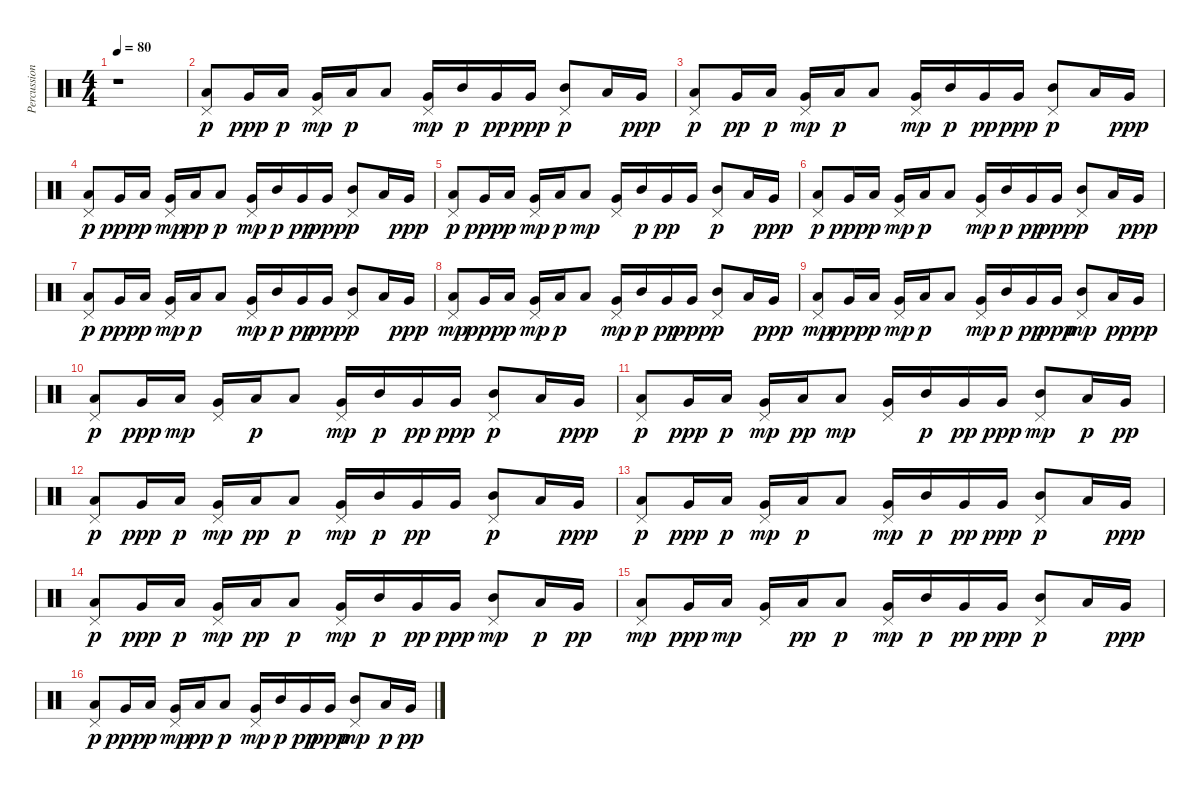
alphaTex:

\track ("Percussioni" "Percussion") {instrument percussion}
\staff {score}
\articulation defaults
\ts (4 4)
\tempo 80
\clef neutral
\ks c
r.1{dy p} |
("Pedal Hi-Hat (hit)" "Low Tom (hit)").8 "Very Low Tom (hit)".16{dy ppp} "Low Tom (hit)".16{dy p} ("Very Low Tom (hit)" "Pedal Hi-Hat (hit)").16{dy mp} "Low Tom (hit)".16{dy p} "Low Tom (hit)".8 ("Very Low Tom (hit)" "Pedal Hi-Hat (hit)").16{dy mp} "Mid Tom (hit)".16{dy p} "Very Low Tom (hit)".16{dy pp} "Very Low Tom (hit)".16{dy ppp} ("Pedal Hi-Hat (hit)" "Mid Tom (hit)").8{dy p} "Low Tom (hit)".16 "Very Low Tom (hit)".16{dy ppp} |
("Pedal Hi-Hat (hit)" "Low Tom (hit)").8{dy p} "Very Low Tom (hit)".16{dy pp} "Low Tom (hit)".16{dy p} ("Very Low Tom (hit)" "Pedal Hi-Hat (hit)").16{dy mp} "Low Tom (hit)".16{dy p} "Low Tom (hit)".8 ("Very Low Tom (hit)" "Pedal Hi-Hat (hit)").16{dy mp} "Mid Tom (hit)".16{dy p} "Very Low Tom (hit)".16{dy pp} "Very Low Tom (hit)".16{dy ppp} ("Pedal Hi-Hat (hit)" "Mid Tom (hit)").8{dy p} "Low Tom (hit)".16 "Very Low Tom (hit)".16{dy ppp} |
("Pedal Hi-Hat (hit)" "Low Tom (hit)").8{dy p} "Very Low Tom (hit)".16{dy ppp} "Low Tom (hit)".16{dy p} ("Very Low Tom (hit)" "Pedal Hi-Hat (hit)").16{dy mp} "Low Tom (hit)".16{dy pp} "Low Tom (hit)".8{dy p} ("Very Low Tom (hit)" "Pedal Hi-Hat (hit)").16{dy mp} "Mid Tom (hit)".16{dy p} "Very Low Tom (hit)".16{dy pp} "Very Low Tom (hit)".16{dy ppp} ("Pedal Hi-Hat (hit)" "Mid Tom (hit)").8{dy p} "Low Tom (hit)".16 "Very Low Tom (hit)".16{dy ppp} |
("Pedal Hi-Hat (hit)" "Low Tom (hit)").8{dy p} "Very Low Tom (hit)".16{dy ppp} "Low Tom (hit)".16{dy p} ("Very Low Tom (hit)" "Pedal Hi-Hat (hit)").16{dy mp} "Low Tom (hit)".16{dy p} "Low Tom (hit)".8{dy mp} ("Very Low Tom (hit)" "Pedal Hi-Hat (hit)").16 "Mid Tom (hit)".16{dy p} "Very Low Tom (hit)".16{dy pp} "Very Low Tom (hit)".16 ("Pedal Hi-Hat (hit)" "Mid Tom (hit)").8{dy p} "Low Tom (hit)".16 "Very Low Tom (hit)".16{dy ppp} |
("Pedal Hi-Hat (hit)" "Low Tom (hit)").8{dy p} "Very Low Tom (hit)".16{dy ppp} "Low Tom (hit)".16{dy p} ("Very Low Tom (hit)" "Pedal Hi-Hat (hit)").16{dy mp} "Low Tom (hit)".16{dy p} "Low Tom (hit)".8 ("Very Low Tom (hit)" "Pedal Hi-Hat (hit)").16{dy mp} "Mid Tom (hit)".16{dy p} "Very Low Tom (hit)".16{dy pp} "Very Low Tom (hit)".16{dy ppp} ("Pedal Hi-Hat (hit)" "Mid Tom (hit)").8{dy p} "Low Tom (hit)".16 "Very Low Tom (hit)".16{dy ppp} |
("Pedal Hi-Hat (hit)" "Low Tom (hit)").8{dy p} "Very Low Tom (hit)".16{dy ppp} "Low Tom (hit)".16{dy p} ("Very Low Tom (hit)" "Pedal Hi-Hat (hit)").16{dy mp} "Low Tom (hit)".16{dy p} "Low Tom (hit)".8 ("Very Low Tom (hit)" "Pedal Hi-Hat (hit)").16{dy mp} "Mid Tom (hit)".16{dy p} "Very Low Tom (hit)".16{dy pp} "Very Low Tom (hit)".16{dy ppp} ("Pedal Hi-Hat (hit)" "Mid Tom (hit)").8{dy p} "Low Tom (hit)".16 "Very Low Tom (hit)".16{dy ppp} |
("Pedal Hi-Hat (hit)" "Low Tom (hit)").8{dy mp} "Very Low Tom (hit)".16{dy ppp} "Low Tom (hit)".16{dy p} ("Very Low Tom (hit)" "Pedal Hi-Hat (hit)").16{dy mp} "Low Tom (hit)".16{dy p} "Low Tom (hit)".8 ("Very Low Tom (hit)" "Pedal Hi-Hat (hit)").16{dy mp} "Mid Tom (hit)".16{dy p} "Very Low Tom (hit)".16{dy pp} "Very Low Tom (hit)".16{dy ppp} ("Pedal Hi-Hat (hit)" "Mid Tom (hit)").8{dy p} "Low Tom (hit)".16 "Very Low Tom (hit)".16{dy ppp} |
("Pedal Hi-Hat (hit)" "Low Tom (hit)").8{dy mp} "Very Low Tom (hit)".16{dy ppp} "Low Tom (hit)".16{dy p} ("Very Low Tom (hit)" "Pedal Hi-Hat (hit)").16{dy mp} "Low Tom (hit)".16{dy p} "Low Tom (hit)".8 ("Very Low Tom (hit)" "Pedal Hi-Hat (hit)").16{dy mp} "Mid Tom (hit)".16{dy p} "Very Low Tom (hit)".16{dy pp} "Very Low Tom (hit)".16{dy ppp} ("Pedal Hi-Hat (hit)" "Mid Tom (hit)").8{dy mp} "Low Tom (hit)".16{dy p} "Very Low Tom (hit)".16{dy ppp} |
("Pedal Hi-Hat (hit)" "Low Tom (hit)").8{dy p} "Very Low Tom (hit)".16{dy ppp} "Low Tom (hit)".16{dy mp} ("Very Low Tom (hit)" "Pedal Hi-Hat (hit)").16 "Low Tom (hit)".16{dy p} "Low Tom (hit)".8 ("Very Low Tom (hit)" "Pedal Hi-Hat (hit)").16{dy mp} "Mid Tom (hit)".16{dy p} "Very Low Tom (hit)".16{dy pp} "Very Low Tom (hit)".16{dy ppp} ("Pedal Hi-Hat (hit)" "Mid Tom (hit)").8{dy p} "Low Tom (hit)".16 "Very Low Tom (hit)".16{dy ppp} |
("Pedal Hi-Hat (hit)" "Low Tom (hit)").8{dy p} "Very Low Tom (hit)".16{dy ppp} "Low Tom (hit)".16{dy p} ("Very Low Tom (hit)" "Pedal Hi-Hat (hit)").16{dy mp} "Low Tom (hit)".16{dy pp} "Low Tom (hit)".8{dy mp} ("Very Low Tom (hit)" "Pedal Hi-Hat (hit)").16 "Mid Tom (hit)".16{dy p} "Very Low Tom (hit)".16{dy pp} "Very Low Tom (hit)".16{dy ppp} ("Pedal Hi-Hat (hit)" "Mid Tom (hit)").8{dy mp} "Low Tom (hit)".16{dy p} "Very Low Tom (hit)".16{dy pp} |
("Pedal Hi-Hat (hit)" "Low Tom (hit)").8{dy p} "Very Low Tom (hit)".16{dy ppp} "Low Tom (hit)".16{dy p} ("Very Low Tom (hit)" "Pedal Hi-Hat (hit)").16{dy mp} "Low Tom (hit)".16{dy pp} "Low Tom (hit)".8{dy p} ("Very Low Tom (hit)" "Pedal Hi-Hat (hit)").16{dy mp} "Mid Tom (hit)".16{dy p} "Very Low Tom (hit)".16{dy pp} "Very Low Tom (hit)".16 ("Pedal Hi-Hat (hit)" "Mid Tom (hit)").8{dy p} "Low Tom (hit)".16 "Very Low Tom (hit)".16{dy ppp} |
("Pedal Hi-Hat (hit)" "Low Tom (hit)").8{dy p} "Very Low Tom (hit)".16{dy ppp} "Low Tom (hit)".16{dy p} ("Very Low Tom (hit)" "Pedal Hi-Hat (hit)").16{dy mp} "Low Tom (hit)".16{dy p} "Low Tom (hit)".8 ("Very Low Tom (hit)" "Pedal Hi-Hat (hit)").16{dy mp} "Mid Tom (hit)".16{dy p} "Very Low Tom (hit)".16{dy pp} "Very Low Tom (hit)".16{dy ppp} ("Pedal Hi-Hat (hit)" "Mid Tom (hit)").8{dy p} "Low Tom (hit)".16 "Very Low Tom (hit)".16{dy ppp} |
("Pedal Hi-Hat (hit)" "Low Tom (hit)").8{dy p} "Very Low Tom (hit)".16{dy ppp} "Low Tom (hit)".16{dy p} ("Very Low Tom (hit)" "Pedal Hi-Hat (hit)").16{dy mp} "Low Tom (hit)".16{dy pp} "Low Tom (hit)".8{dy p} ("Very Low Tom (hit)" "Pedal Hi-Hat (hit)").16{dy mp} "Mid Tom (hit)".16{dy p} "Very Low Tom (hit)".16{dy pp} "Very Low Tom (hit)".16{dy ppp} ("Pedal Hi-Hat (hit)" "Mid Tom (hit)").8{dy mp} "Low Tom (hit)".16{dy p} "Very Low Tom (hit)".16{dy pp} |
("Pedal Hi-Hat (hit)" "Low Tom (hit)").8{dy mp} "Very Low Tom (hit)".16{dy ppp} "Low Tom (hit)".16{dy mp} ("Very Low Tom (hit)" "Pedal Hi-Hat (hit)").16 "Low Tom (hit)".16{dy pp} "Low Tom (hit)".8{dy p} ("Very Low Tom (hit)" "Pedal Hi-Hat (hit)").16{dy mp} "Mid Tom (hit)".16{dy p} "Very Low Tom (hit)".16{dy pp} "Very Low Tom (hit)".16{dy ppp} ("Pedal Hi-Hat (hit)" "Mid Tom (hit)").8{dy p} "Low Tom (hit)".16 "Very Low Tom (hit)".16{dy ppp} |
("Pedal Hi-Hat (hit)" "Low Tom (hit)").8{dy p} "Very Low Tom (hit)".16{dy ppp} "Low Tom (hit)".16{dy p} ("Very Low Tom (hit)" "Pedal Hi-Hat (hit)").16{dy mp} "Low Tom (hit)".16{dy pp} "Low Tom (hit)".8{dy p} ("Very Low Tom (hit)" "Pedal Hi-Hat (hit)").16{dy mp} "Mid Tom (hit)".16{dy p} "Very Low Tom (hit)".16{dy pp} "Very Low Tom (hit)".16{dy ppp} ("Pedal Hi-Hat (hit)" "Mid Tom (hit)").8{dy mp} "Low Tom (hit)".16{dy p} "Very Low Tom (hit)".16{dy pp}
